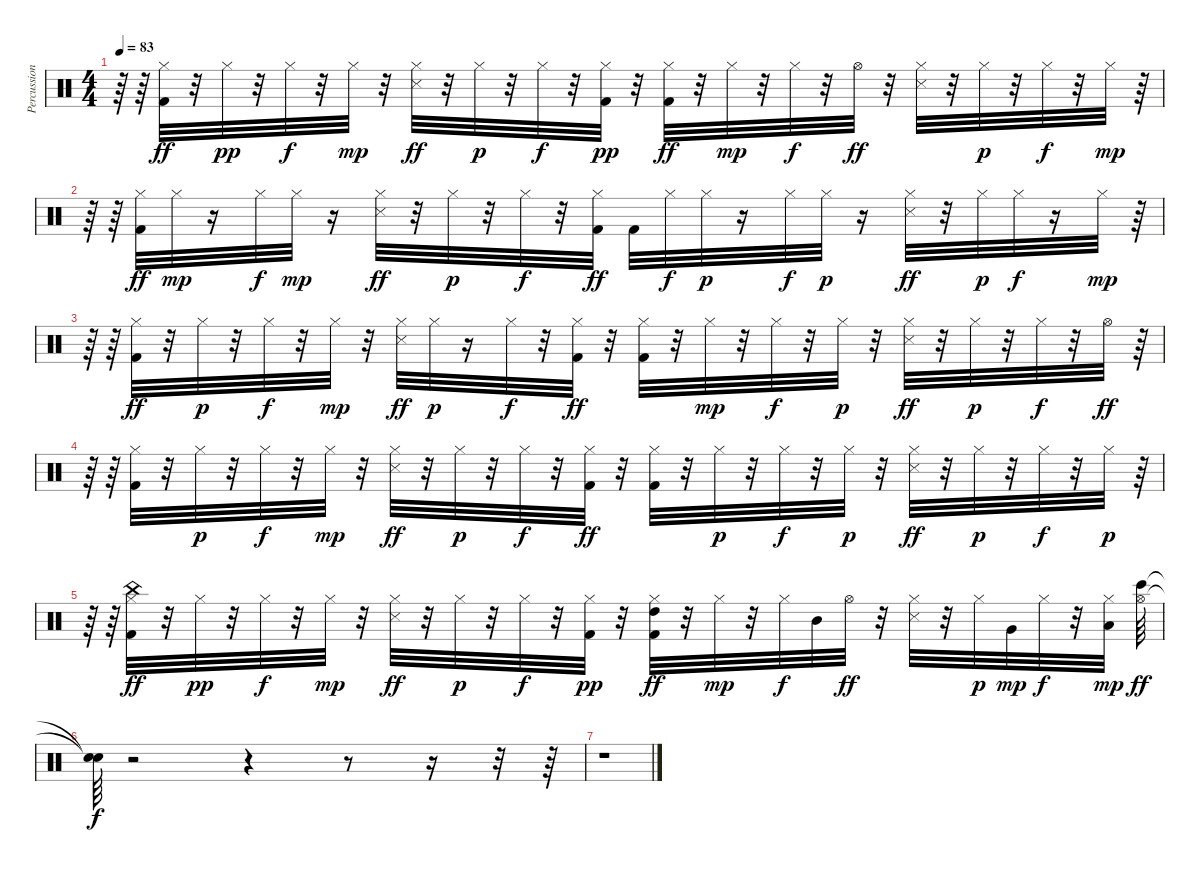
\track ("Percussion" "Percussion") {instrument percussion}
\staff {score}
\articulation defaults
\ts (4 4)
\tempo 83
\clef neutral
\ks c
r.64{dy p} r.64 ("Hi-Hat (closed)" "Kick (hit) 2").32{dy ff} r.32 "Hi-Hat (closed)".32{dy pp} r.32 "Hi-Hat (closed)".32{dy f} r.32 "Hi-Hat (closed)".32{dy mp} r.32 ("Snare (side stick) 3" "Hi-Hat (closed)").32{dy ff} r.32 "Hi-Hat (closed)".32{dy p} r.32 "Hi-Hat (closed)".32{dy f} r.32 ("Hi-Hat (closed)" "Kick (hit) 2").32{dy pp} r.32 ("Kick (hit) 2" "Hi-Hat (closed)").32{dy ff} r.32 "Hi-Hat (closed)".32{dy mp} r.32 "Hi-Hat (closed)".32{dy f} r.32 "Hi-Hat (open)".32{dy ff} r.32 ("Snare (side stick) 3" "Hi-Hat (closed)").32 r.32 "Hi-Hat (closed)".32{dy p} r.32 "Hi-Hat (closed)".32{dy f} r.32 "Hi-Hat (closed)".32{dy mp} r.64 |
r.64 r.64 ("Hi-Hat (closed)" "Kick (hit) 2").32{dy ff} "Hi-Hat (closed)".32{dy mp} r.16 "Hi-Hat (closed)".32{dy f} "Hi-Hat (closed)".32{dy mp} r.16 ("Hi-Hat (closed)" "Snare (side stick) 3").32{dy ff} r.32 "Hi-Hat (closed)".32{dy p} r.32 "Hi-Hat (closed)".32{dy f} r.32 ("Hi-Hat (closed)" "Kick (hit) 2").32{dy ff} "Kick (hit) 2".32 "Hi-Hat (closed)".32{dy f} "Hi-Hat (closed)".32{dy p} r.16 "Hi-Hat (closed)".32{dy f} "Hi-Hat (closed)".32{dy p} r.16 ("Hi-Hat (closed)" "Snare (side stick) 3").32{dy ff} r.32 "Hi-Hat (closed)".32{dy p} "Hi-Hat (closed)".32{dy f} r.16 "Hi-Hat (closed)".32{dy mp} r.64 |
r.64 r.64 ("Kick (hit) 2" "Hi-Hat (closed)").32{dy ff} r.32 "Hi-Hat (closed)".32{dy p} r.32 "Hi-Hat (closed)".32{dy f} r.32 "Hi-Hat (closed)".32{dy mp} r.32 ("Hi-Hat (closed)" "Snare (side stick) 3").32{dy ff} "Hi-Hat (closed)".32{dy p} r.16 "Hi-Hat (closed)".32{dy f} r.32 ("Hi-Hat (closed)" "Kick (hit) 2").32{dy ff} r.32 ("Hi-Hat (closed)" "Kick (hit) 2").32 r.32 "Hi-Hat (closed)".32{dy mp} r.32 "Hi-Hat (closed)".32{dy f} r.32 "Hi-Hat (closed)".32{dy p} r.32 ("Hi-Hat (closed)" "Snare (side stick) 3").32{dy ff} r.32 "Hi-Hat (closed)".32{dy p} r.32 "Hi-Hat (closed)".32{dy f} r.32 "Hi-Hat (open)".32{dy ff} r.64 |
r.64 r.64 ("Kick (hit) 2" "Hi-Hat (closed)").32 r.32 "Hi-Hat (closed)".32{dy p} r.32 "Hi-Hat (closed)".32{dy f} r.32 "Hi-Hat (closed)".32{dy mp} r.32 ("Hi-Hat (closed)" "Snare (side stick) 3").32{dy ff} r.32 "Hi-Hat (closed)".32{dy p} r.32 "Hi-Hat (closed)".32{dy f} r.32 ("Hi-Hat (closed)" "Kick (hit) 2").32{dy ff} r.32 ("Hi-Hat (closed)" "Kick (hit) 2").32 r.32 "Hi-Hat (closed)".32{dy p} r.32 "Hi-Hat (closed)".32{dy f} r.32 "Hi-Hat (closed)".32{dy p} r.32 ("Hi-Hat (closed)" "Snare (side stick) 3").32{dy ff} r.32 "Hi-Hat (closed)".32{dy p} r.32 "Hi-Hat (closed)".32{dy f} r.32 "Hi-Hat (closed)".32{dy p} r.64 |
r.64 r.64 ("China (hit)" "Hi-Hat (closed)" "Kick (hit) 2").32{dy ff} r.32 "Hi-Hat (closed)".32{dy pp} r.32 "Hi-Hat (closed)".32{dy f} r.32 "Hi-Hat (closed)".32{dy mp} r.32 ("Snare (side stick) 3" "Hi-Hat (closed)").32{dy ff} r.32 "Hi-Hat (closed)".32{dy p} r.32 "Hi-Hat (closed)".32{dy f} r.32 ("Hi-Hat (closed)" "Kick (hit) 2").32{dy pp} r.32 ("High Tom (hit)" "Kick (hit) 2" "Hi-Hat (closed)").32{dy ff} r.32 "Hi-Hat (closed)".32{dy mp} r.32 "Hi-Hat (closed)".32{dy f} "Mid Tom (hit)".32 "Hi-Hat (open)".32{dy ff} r.32 ("Snare (side stick) 3" "Hi-Hat (closed)").32 r.32 "Hi-Hat (closed)".32{dy p} "Very Low Tom (hit)".32{dy mp} "Hi-Hat (closed)".32{dy f} r.32 ("Low Floor Tom (hit)" "Hi-Hat (closed)").32{dy mp} ("Bongo High (hit)" "Hi-Hat (open)").64{dy ff} |
("Snare (hit)"{t} "Snare (hit)"{t}).64{dy f} r.2 r.4 r.8 r.16 r.32 r.64 |
r.1
